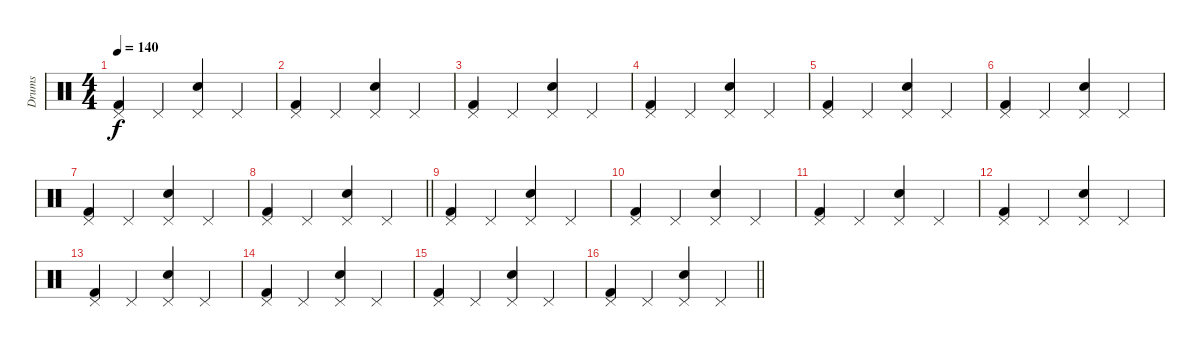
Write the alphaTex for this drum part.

\track ("Drums" "Drums") {instrument percussion}
\staff {score}
\articulation defaults
\ts (4 4)
\tempo 140
\clef neutral
\ks c
("Pedal Hi-Hat (hit)" "Kick (hit) 2").4{dy f} "Pedal Hi-Hat (hit)".4 ("Pedal Hi-Hat (hit)" "Snare (hit) 2").4 "Pedal Hi-Hat (hit)".4 |
("Pedal Hi-Hat (hit)" "Kick (hit) 2").4 "Pedal Hi-Hat (hit)".4 ("Pedal Hi-Hat (hit)" "Snare (hit) 2").4 "Pedal Hi-Hat (hit)".4 |
("Pedal Hi-Hat (hit)" "Kick (hit) 2").4 "Pedal Hi-Hat (hit)".4 ("Pedal Hi-Hat (hit)" "Snare (hit) 2").4 "Pedal Hi-Hat (hit)".4 |
("Pedal Hi-Hat (hit)" "Kick (hit) 2").4 "Pedal Hi-Hat (hit)".4 ("Pedal Hi-Hat (hit)" "Snare (hit) 2").4 "Pedal Hi-Hat (hit)".4 |
("Pedal Hi-Hat (hit)" "Kick (hit) 2").4 "Pedal Hi-Hat (hit)".4 ("Pedal Hi-Hat (hit)" "Snare (hit) 2").4 "Pedal Hi-Hat (hit)".4 |
("Pedal Hi-Hat (hit)" "Kick (hit) 2").4 "Pedal Hi-Hat (hit)".4 ("Pedal Hi-Hat (hit)" "Snare (hit) 2").4 "Pedal Hi-Hat (hit)".4 |
("Pedal Hi-Hat (hit)" "Kick (hit) 2").4 "Pedal Hi-Hat (hit)".4 ("Pedal Hi-Hat (hit)" "Snare (hit) 2").4 "Pedal Hi-Hat (hit)".4 |
\barLineRight lightlight
("Pedal Hi-Hat (hit)" "Kick (hit) 2").4 "Pedal Hi-Hat (hit)".4 ("Pedal Hi-Hat (hit)" "Snare (hit) 2").4 "Pedal Hi-Hat (hit)".4 |
\section ("" "")
("Pedal Hi-Hat (hit)" "Kick (hit) 2").4 "Pedal Hi-Hat (hit)".4 ("Pedal Hi-Hat (hit)" "Snare (hit) 2").4 "Pedal Hi-Hat (hit)".4 |
("Pedal Hi-Hat (hit)" "Kick (hit) 2").4 "Pedal Hi-Hat (hit)".4 ("Pedal Hi-Hat (hit)" "Snare (hit) 2").4 "Pedal Hi-Hat (hit)".4 |
("Pedal Hi-Hat (hit)" "Kick (hit) 2").4 "Pedal Hi-Hat (hit)".4 ("Pedal Hi-Hat (hit)" "Snare (hit) 2").4 "Pedal Hi-Hat (hit)".4 |
("Pedal Hi-Hat (hit)" "Kick (hit) 2").4 "Pedal Hi-Hat (hit)".4 ("Pedal Hi-Hat (hit)" "Snare (hit) 2").4 "Pedal Hi-Hat (hit)".4 |
("Pedal Hi-Hat (hit)" "Kick (hit) 2").4 "Pedal Hi-Hat (hit)".4 ("Pedal Hi-Hat (hit)" "Snare (hit) 2").4 "Pedal Hi-Hat (hit)".4 |
("Pedal Hi-Hat (hit)" "Kick (hit) 2").4 "Pedal Hi-Hat (hit)".4 ("Pedal Hi-Hat (hit)" "Snare (hit) 2").4 "Pedal Hi-Hat (hit)".4 |
("Pedal Hi-Hat (hit)" "Kick (hit) 2").4 "Pedal Hi-Hat (hit)".4 ("Pedal Hi-Hat (hit)" "Snare (hit) 2").4 "Pedal Hi-Hat (hit)".4 |
\barLineRight lightlight
("Pedal Hi-Hat (hit)" "Kick (hit) 2").4 "Pedal Hi-Hat (hit)".4 ("Pedal Hi-Hat (hit)" "Snare (hit) 2").4 "Pedal Hi-Hat (hit)".4
